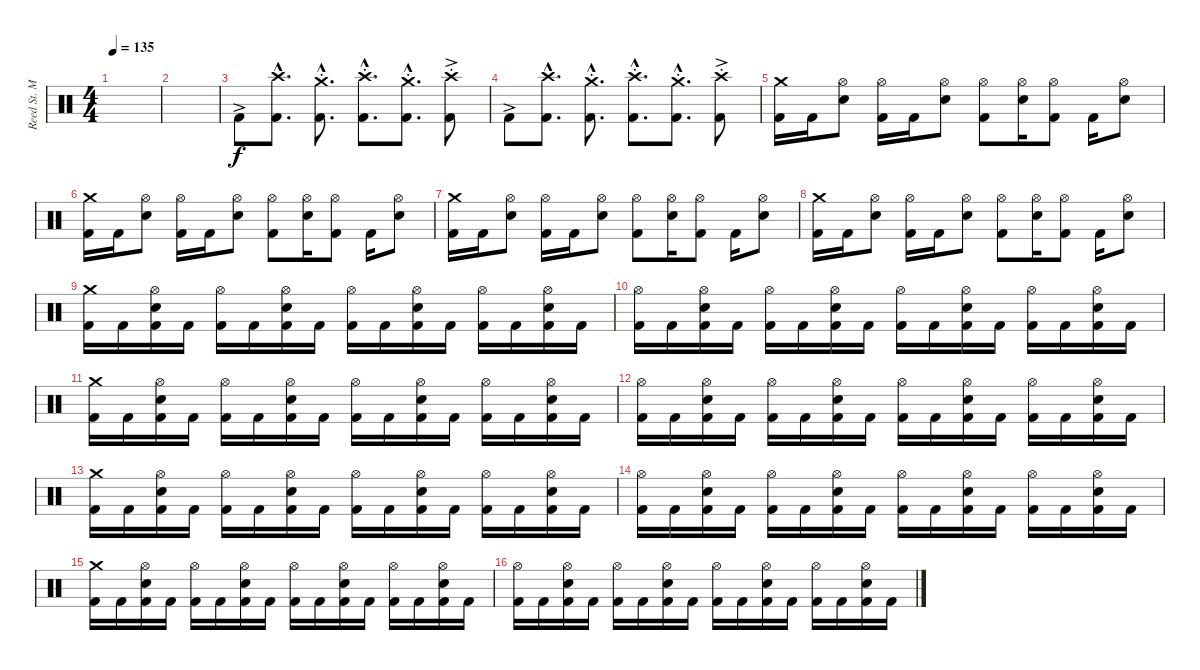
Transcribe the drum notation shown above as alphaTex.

\track ("Reed St. Mark" "Reed St. M") {instrument percussion}
\staff {score}
\articulation defaults
\ts (4 4)
\tempo 135
\clef neutral
\ks c
|
|
"Kick (hit) 2"{ac}.8 ("Crash high (hit)"{hac} "Kick (hit) 2"{hac}).8{d} ("Crash medium (hit)"{hac st} "Kick (hit) 2"{hac}).8{d} ("Crash high (hit)"{hac st} "Kick (hit) 2"{hac}).8{d} ("Crash medium (hit)"{hac st} "Kick (hit) 2"{hac}).8{d} ("Crash high (hit)"{st} "Kick (hit) 2"{ac}).8 |
"Kick (hit) 2"{ac}.8 ("Crash high (hit)"{hac} "Kick (hit) 2"{hac}).8{d} ("Crash medium (hit)"{hac st} "Kick (hit) 2"{hac}).8{d} ("Crash high (hit)"{hac st} "Kick (hit) 2"{hac}).8{d} ("Crash medium (hit)"{hac st} "Kick (hit) 2"{hac}).8{d} ("Crash high (hit)"{st} "Kick (hit) 2"{ac}).8 |
("Crash medium (hit)" "Kick (hit) 2").16{dy f} "Kick (hit) 2".16 ("Hi-Hat (open)" "Snare (hit) 2").8 ("Hi-Hat (open)" "Kick (hit) 2").16 "Kick (hit) 2".16 ("Hi-Hat (open)" "Snare (hit) 2").8 ("Hi-Hat (open)" "Kick (hit) 2").8 ("Hi-Hat (open)" "Snare (hit) 2").16 ("Hi-Hat (open)" "Kick (hit) 2").8 "Kick (hit) 2".16 ("Hi-Hat (open)" "Snare (hit) 2").8 |
("Crash medium (hit)" "Kick (hit) 2").16 "Kick (hit) 2".16 ("Hi-Hat (open)" "Snare (hit) 2").8 ("Hi-Hat (open)" "Kick (hit) 2").16 "Kick (hit) 2".16 ("Hi-Hat (open)" "Snare (hit) 2").8 ("Hi-Hat (open)" "Kick (hit) 2").8 ("Hi-Hat (open)" "Snare (hit) 2").16 ("Hi-Hat (open)" "Kick (hit) 2").8 "Kick (hit) 2".16 ("Hi-Hat (open)" "Snare (hit) 2").8 |
("Crash medium (hit)" "Kick (hit) 2").16 "Kick (hit) 2".16 ("Hi-Hat (open)" "Snare (hit) 2").8 ("Hi-Hat (open)" "Kick (hit) 2").16 "Kick (hit) 2".16 ("Hi-Hat (open)" "Snare (hit) 2").8 ("Hi-Hat (open)" "Kick (hit) 2").8 ("Hi-Hat (open)" "Snare (hit) 2").16 ("Hi-Hat (open)" "Kick (hit) 2").8 "Kick (hit) 2".16 ("Hi-Hat (open)" "Snare (hit) 2").8 |
("Crash medium (hit)" "Kick (hit) 2").16 "Kick (hit) 2".16 ("Hi-Hat (open)" "Snare (hit) 2").8 ("Hi-Hat (open)" "Kick (hit) 2").16 "Kick (hit) 2".16 ("Hi-Hat (open)" "Snare (hit) 2").8 ("Hi-Hat (open)" "Kick (hit) 2").8 ("Hi-Hat (open)" "Snare (hit) 2").16 ("Hi-Hat (open)" "Kick (hit) 2").8 "Kick (hit) 2".16 ("Hi-Hat (open)" "Snare (hit) 2").8 |
("Crash medium (hit)" "Kick (hit) 2").16 "Kick (hit) 2".16 ("Hi-Hat (open)" "Snare (hit) 2" "Kick (hit) 2").16 "Kick (hit) 2".16 ("Hi-Hat (open)" "Kick (hit) 2").16 "Kick (hit) 2".16 ("Hi-Hat (open)" "Snare (hit) 2" "Kick (hit) 2").16 "Kick (hit) 2".16 ("Hi-Hat (open)" "Kick (hit) 2").16 "Kick (hit) 2".16 ("Hi-Hat (open)" "Snare (hit) 2" "Kick (hit) 2").16 "Kick (hit) 2".16 ("Hi-Hat (open)" "Kick (hit) 2").16 "Kick (hit) 2".16 ("Hi-Hat (open)" "Snare (hit) 2" "Kick (hit) 2").16 "Kick (hit) 2".16 |
("Hi-Hat (open)" "Kick (hit) 2").16 "Kick (hit) 2".16 ("Hi-Hat (open)" "Snare (hit) 2" "Kick (hit) 2").16 "Kick (hit) 2".16 ("Hi-Hat (open)" "Kick (hit) 2").16 "Kick (hit) 2".16 ("Hi-Hat (open)" "Snare (hit) 2" "Kick (hit) 2").16 "Kick (hit) 2".16 ("Hi-Hat (open)" "Kick (hit) 2").16 "Kick (hit) 2".16 ("Hi-Hat (open)" "Snare (hit) 2" "Kick (hit) 2").16 "Kick (hit) 2".16 ("Hi-Hat (open)" "Kick (hit) 2").16 "Kick (hit) 2".16 ("Hi-Hat (open)" "Snare (hit) 2" "Kick (hit) 2").16 "Kick (hit) 2".16 |
("Crash medium (hit)" "Kick (hit) 2").16 "Kick (hit) 2".16 ("Hi-Hat (open)" "Snare (hit) 2" "Kick (hit) 2").16 "Kick (hit) 2".16 ("Hi-Hat (open)" "Kick (hit) 2").16 "Kick (hit) 2".16 ("Hi-Hat (open)" "Snare (hit) 2" "Kick (hit) 2").16 "Kick (hit) 2".16 ("Hi-Hat (open)" "Kick (hit) 2").16 "Kick (hit) 2".16 ("Hi-Hat (open)" "Snare (hit) 2" "Kick (hit) 2").16 "Kick (hit) 2".16 ("Hi-Hat (open)" "Kick (hit) 2").16 "Kick (hit) 2".16 ("Hi-Hat (open)" "Snare (hit) 2" "Kick (hit) 2").16 "Kick (hit) 2".16 |
("Hi-Hat (open)" "Kick (hit) 2").16 "Kick (hit) 2".16 ("Hi-Hat (open)" "Snare (hit) 2" "Kick (hit) 2").16 "Kick (hit) 2".16 ("Hi-Hat (open)" "Kick (hit) 2").16 "Kick (hit) 2".16 ("Hi-Hat (open)" "Snare (hit) 2" "Kick (hit) 2").16 "Kick (hit) 2".16 ("Hi-Hat (open)" "Kick (hit) 2").16 "Kick (hit) 2".16 ("Hi-Hat (open)" "Snare (hit) 2" "Kick (hit) 2").16 "Kick (hit) 2".16 ("Hi-Hat (open)" "Kick (hit) 2").16 "Kick (hit) 2".16 ("Hi-Hat (open)" "Snare (hit) 2" "Kick (hit) 2").16 "Kick (hit) 2".16 |
("Crash medium (hit)" "Kick (hit) 2").16 "Kick (hit) 2".16 ("Hi-Hat (open)" "Snare (hit) 2" "Kick (hit) 2").16 "Kick (hit) 2".16 ("Hi-Hat (open)" "Kick (hit) 2").16 "Kick (hit) 2".16 ("Hi-Hat (open)" "Snare (hit) 2" "Kick (hit) 2").16 "Kick (hit) 2".16 ("Hi-Hat (open)" "Kick (hit) 2").16 "Kick (hit) 2".16 ("Hi-Hat (open)" "Snare (hit) 2" "Kick (hit) 2").16 "Kick (hit) 2".16 ("Hi-Hat (open)" "Kick (hit) 2").16 "Kick (hit) 2".16 ("Hi-Hat (open)" "Snare (hit) 2" "Kick (hit) 2").16 "Kick (hit) 2".16 |
("Hi-Hat (open)" "Kick (hit) 2").16 "Kick (hit) 2".16 ("Hi-Hat (open)" "Snare (hit) 2" "Kick (hit) 2").16 "Kick (hit) 2".16 ("Hi-Hat (open)" "Kick (hit) 2").16 "Kick (hit) 2".16 ("Hi-Hat (open)" "Snare (hit) 2" "Kick (hit) 2").16 "Kick (hit) 2".16 ("Hi-Hat (open)" "Kick (hit) 2").16 "Kick (hit) 2".16 ("Hi-Hat (open)" "Snare (hit) 2" "Kick (hit) 2").16 "Kick (hit) 2".16 ("Hi-Hat (open)" "Kick (hit) 2").16 "Kick (hit) 2".16 ("Hi-Hat (open)" "Snare (hit) 2" "Kick (hit) 2").16 "Kick (hit) 2".16 |
("Crash medium (hit)" "Kick (hit) 2").16 "Kick (hit) 2".16 ("Hi-Hat (open)" "Snare (hit) 2" "Kick (hit) 2").16 "Kick (hit) 2".16 ("Hi-Hat (open)" "Kick (hit) 2").16 "Kick (hit) 2".16 ("Hi-Hat (open)" "Snare (hit) 2" "Kick (hit) 2").16 "Kick (hit) 2".16 ("Hi-Hat (open)" "Kick (hit) 2").16 "Kick (hit) 2".16 ("Hi-Hat (open)" "Snare (hit) 2" "Kick (hit) 2").16 "Kick (hit) 2".16 ("Hi-Hat (open)" "Kick (hit) 2").16 "Kick (hit) 2".16 ("Hi-Hat (open)" "Snare (hit) 2" "Kick (hit) 2").16 "Kick (hit) 2".16 |
("Hi-Hat (open)" "Kick (hit) 2").16 "Kick (hit) 2".16 ("Hi-Hat (open)" "Snare (hit) 2" "Kick (hit) 2").16 "Kick (hit) 2".16 ("Hi-Hat (open)" "Kick (hit) 2").16 "Kick (hit) 2".16 ("Hi-Hat (open)" "Snare (hit) 2" "Kick (hit) 2").16 "Kick (hit) 2".16 ("Hi-Hat (open)" "Kick (hit) 2").16 "Kick (hit) 2".16 ("Hi-Hat (open)" "Snare (hit) 2" "Kick (hit) 2").16 "Kick (hit) 2".16 ("Hi-Hat (open)" "Kick (hit) 2").16 "Kick (hit) 2".16 ("Hi-Hat (open)" "Snare (hit) 2" "Kick (hit) 2").16 "Kick (hit) 2".16
